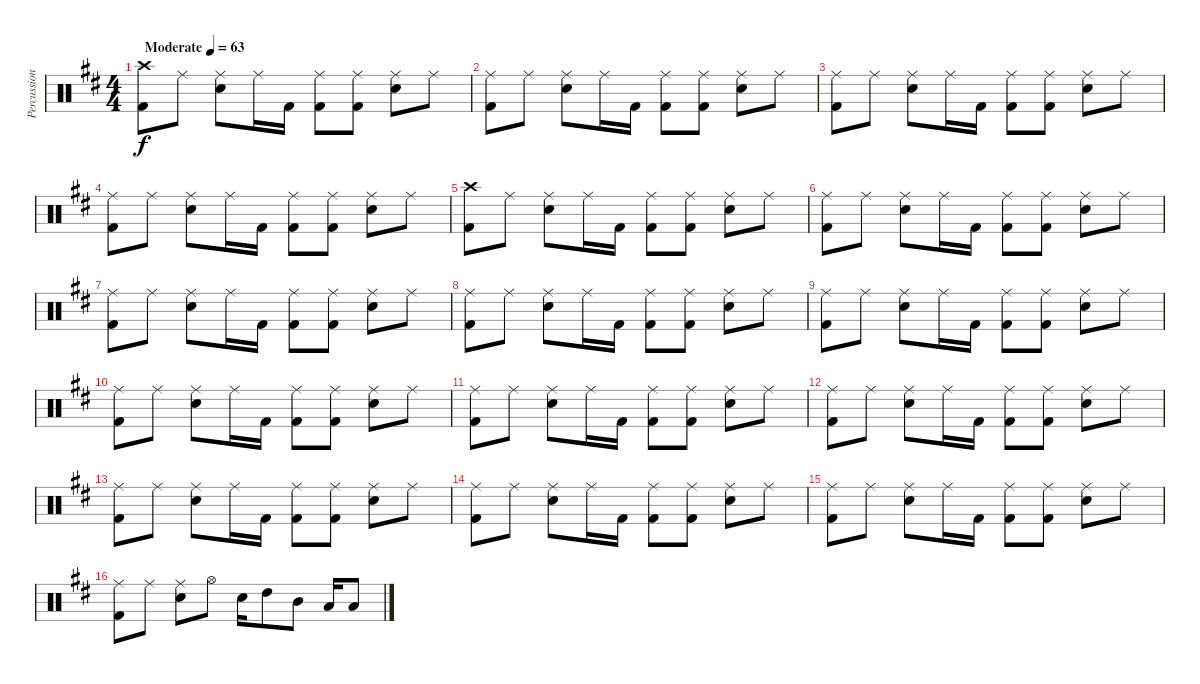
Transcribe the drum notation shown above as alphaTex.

\track ("Percussion" "Percussion") {instrument percussion}
\staff {score}
\articulation defaults
\ts (4 4)
\tempo (63 "Moderate")
\clef neutral
\ks d
("Crash high (hit)" "Kick (hit) 2").8{dy f} "Ride (middle)".8 ("Ride (middle)" "Snare (hit) 2").8 "Ride (middle)".16 "Kick (hit) 2".16 ("Ride (middle)" "Kick (hit) 2").8 ("Ride (middle)" "Kick (hit) 2").8 ("Ride (middle)" "Snare (hit) 2").8 "Ride (middle)".8 |
("Ride (middle)" "Kick (hit) 2").8 "Ride (middle)".8 ("Ride (middle)" "Snare (hit) 2").8 "Ride (middle)".16 "Kick (hit) 2".16 ("Ride (middle)" "Kick (hit) 2").8 ("Ride (middle)" "Kick (hit) 2").8 ("Ride (middle)" "Snare (hit) 2").8 "Ride (middle)".8 |
("Ride (middle)" "Kick (hit) 2").8 "Ride (middle)".8 ("Ride (middle)" "Snare (hit) 2").8 "Ride (middle)".16 "Kick (hit) 2".16 ("Ride (middle)" "Kick (hit) 2").8 ("Ride (middle)" "Kick (hit) 2").8 ("Ride (middle)" "Snare (hit) 2").8 "Ride (middle)".8 |
("Ride (middle)" "Kick (hit) 2").8 "Ride (middle)".8 ("Ride (middle)" "Snare (hit) 2").8 "Ride (middle)".16 "Kick (hit) 2".16 ("Ride (middle)" "Kick (hit) 2").8 ("Ride (middle)" "Kick (hit) 2").8 ("Ride (middle)" "Snare (hit) 2").8 "Ride (middle)".8 |
("Crash high (hit)" "Kick (hit) 2").8 "Ride (middle)".8 ("Ride (middle)" "Snare (hit) 2").8 "Ride (middle)".16 "Kick (hit) 2".16 ("Ride (middle)" "Kick (hit) 2").8 ("Ride (middle)" "Kick (hit) 2").8 ("Ride (middle)" "Snare (hit) 2").8 "Ride (middle)".8 |
("Ride (middle)" "Kick (hit) 2").8 "Ride (middle)".8 ("Ride (middle)" "Snare (hit) 2").8 "Ride (middle)".16 "Kick (hit) 2".16 ("Ride (middle)" "Kick (hit) 2").8 ("Ride (middle)" "Kick (hit) 2").8 ("Ride (middle)" "Snare (hit) 2").8 "Ride (middle)".8 |
("Ride (middle)" "Kick (hit) 2").8 "Ride (middle)".8 ("Ride (middle)" "Snare (hit) 2").8 "Ride (middle)".16 "Kick (hit) 2".16 ("Ride (middle)" "Kick (hit) 2").8 ("Ride (middle)" "Kick (hit) 2").8 ("Ride (middle)" "Snare (hit) 2").8 "Ride (middle)".8 |
("Ride (middle)" "Kick (hit) 2").8 "Ride (middle)".8 ("Ride (middle)" "Snare (hit) 2").8 "Ride (middle)".16 "Kick (hit) 2".16 ("Ride (middle)" "Kick (hit) 2").8 ("Ride (middle)" "Kick (hit) 2").8 ("Ride (middle)" "Snare (hit) 2").8 "Ride (middle)".8 |
("Ride (middle)" "Kick (hit) 2").8 "Ride (middle)".8 ("Ride (middle)" "Snare (hit) 2").8 "Ride (middle)".16 "Kick (hit) 2".16 ("Ride (middle)" "Kick (hit) 2").8 ("Ride (middle)" "Kick (hit) 2").8 ("Ride (middle)" "Snare (hit) 2").8 "Ride (middle)".8 |
("Ride (middle)" "Kick (hit) 2").8 "Ride (middle)".8 ("Ride (middle)" "Snare (hit) 2").8 "Ride (middle)".16 "Kick (hit) 2".16 ("Ride (middle)" "Kick (hit) 2").8 ("Ride (middle)" "Kick (hit) 2").8 ("Ride (middle)" "Snare (hit) 2").8 "Ride (middle)".8 |
("Ride (middle)" "Kick (hit) 2").8 "Ride (middle)".8 ("Ride (middle)" "Snare (hit) 2").8 "Ride (middle)".16 "Kick (hit) 2".16 ("Ride (middle)" "Kick (hit) 2").8 ("Ride (middle)" "Kick (hit) 2").8 ("Ride (middle)" "Snare (hit) 2").8 "Ride (middle)".8 |
("Ride (middle)" "Kick (hit) 2").8 "Ride (middle)".8 ("Ride (middle)" "Snare (hit) 2").8 "Ride (middle)".16 "Kick (hit) 2".16 ("Ride (middle)" "Kick (hit) 2").8 ("Ride (middle)" "Kick (hit) 2").8 ("Ride (middle)" "Snare (hit) 2").8 "Ride (middle)".8 |
("Ride (middle)" "Kick (hit) 2").8 "Ride (middle)".8 ("Ride (middle)" "Snare (hit) 2").8 "Ride (middle)".16 "Kick (hit) 2".16 ("Ride (middle)" "Kick (hit) 2").8 ("Ride (middle)" "Kick (hit) 2").8 ("Ride (middle)" "Snare (hit) 2").8 "Ride (middle)".8 |
("Ride (middle)" "Kick (hit) 2").8 "Ride (middle)".8 ("Ride (middle)" "Snare (hit) 2").8 "Ride (middle)".16 "Kick (hit) 2".16 ("Ride (middle)" "Kick (hit) 2").8 ("Ride (middle)" "Kick (hit) 2").8 ("Ride (middle)" "Snare (hit) 2").8 "Ride (middle)".8 |
("Ride (middle)" "Kick (hit) 2").8 "Ride (middle)".8 ("Ride (middle)" "Snare (hit) 2").8 "Ride (middle)".16 "Kick (hit) 2".16 ("Ride (middle)" "Kick (hit) 2").8 ("Ride (middle)" "Kick (hit) 2").8 ("Ride (middle)" "Snare (hit) 2").8 "Ride (middle)".8 |
("Ride (middle)" "Kick (hit) 2").8 "Ride (middle)".8 ("Ride (middle)" "Snare (hit) 2").8 "Hi-Hat (open)".8 "Snare (hit) 2".16 "High Tom (hit)".8 "Mid Tom (hit)".8 "Low Tom (hit)".16 "Low Tom (hit)".8
